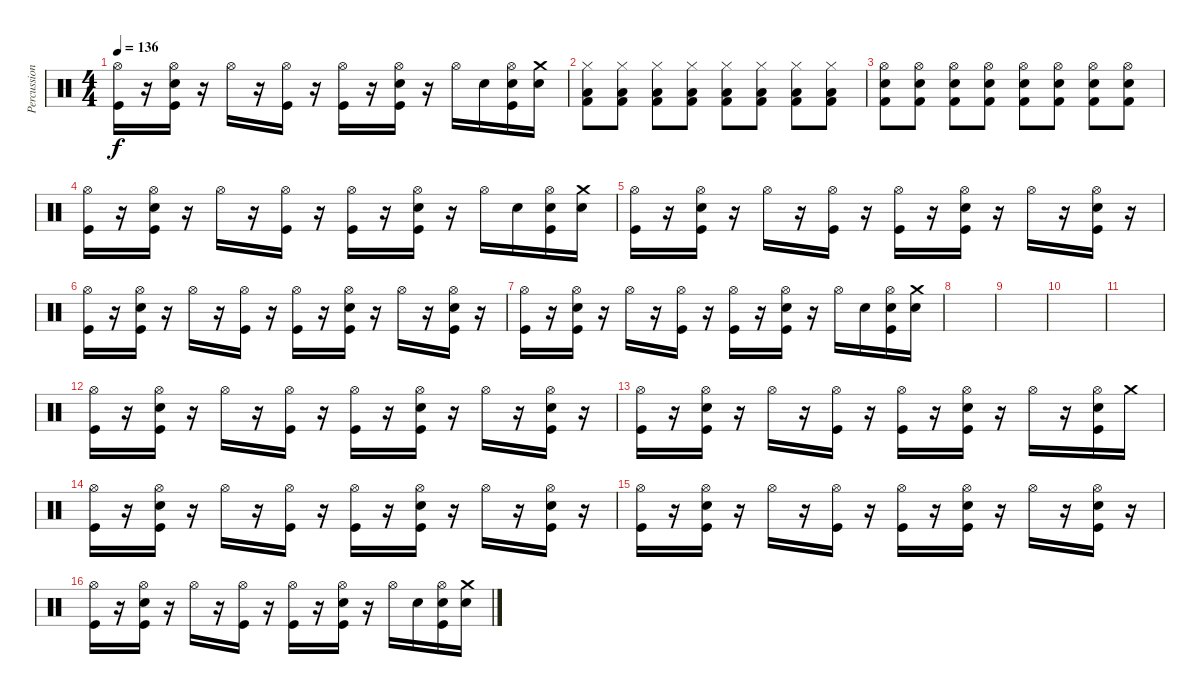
\track ("Percussion" "Percussion") {instrument percussion}
\staff {score}
\articulation defaults
\ts (4 4)
\tempo 136
\clef neutral
\ks c
("Kick (hit)" "Hi-Hat (open)").16{dy f} r.16 ("Kick (hit)" "Snare (hit) 2" "Hi-Hat (open)").16 r.16 "Hi-Hat (open)".16 r.16 ("Kick (hit)" "Hi-Hat (open)").16 r.16 ("Kick (hit)" "Hi-Hat (open)").16 r.16 ("Kick (hit)" "Snare (hit) 2" "Hi-Hat (open)").16 r.16 "Hi-Hat (open)".16 "Electric Snare (hit)".16 ("Kick (hit)" "Snare (hit) 2" "Hi-Hat (open)").16 ("Crash medium (hit)" "Electric Snare (hit)").16 |
("Hi-Hat (closed)" "Low Floor Tom (hit)" "Kick (hit) 2").8 ("Hi-Hat (closed)" "Low Floor Tom (hit)" "Kick (hit) 2").8 ("Hi-Hat (closed)" "Low Floor Tom (hit)" "Kick (hit) 2").8 ("Hi-Hat (closed)" "Low Floor Tom (hit)" "Kick (hit) 2").8 ("Hi-Hat (closed)" "Low Floor Tom (hit)" "Kick (hit) 2").8 ("Hi-Hat (closed)" "Low Floor Tom (hit)" "Kick (hit) 2").8 ("Hi-Hat (closed)" "Low Floor Tom (hit)" "Kick (hit) 2").8 ("Hi-Hat (closed)" "Low Floor Tom (hit)" "Kick (hit) 2").8 |
("Snare (hit) 2" "Hi-Hat (open)" "Kick (hit) 2").8 ("Snare (hit) 2" "Hi-Hat (open)" "Kick (hit) 2").8 ("Snare (hit) 2" "Hi-Hat (open)" "Kick (hit) 2").8 ("Snare (hit) 2" "Hi-Hat (open)" "Kick (hit) 2").8 ("Snare (hit) 2" "Hi-Hat (open)" "Kick (hit) 2").8 ("Snare (hit) 2" "Hi-Hat (open)" "Kick (hit) 2").8 ("Snare (hit) 2" "Hi-Hat (open)" "Kick (hit) 2").8 ("Snare (hit) 2" "Hi-Hat (open)" "Kick (hit) 2").8 |
("Kick (hit)" "Hi-Hat (open)").16 r.16 ("Kick (hit)" "Snare (hit) 2" "Hi-Hat (open)").16 r.16 "Hi-Hat (open)".16 r.16 ("Kick (hit)" "Hi-Hat (open)").16 r.16 ("Kick (hit)" "Hi-Hat (open)").16 r.16 ("Kick (hit)" "Snare (hit) 2" "Hi-Hat (open)").16 r.16 "Hi-Hat (open)".16 "Electric Snare (hit)".16 ("Kick (hit)" "Snare (hit) 2" "Hi-Hat (open)").16 ("Crash medium (hit)" "Electric Snare (hit)").16 |
("Kick (hit)" "Hi-Hat (open)").16 r.16 ("Kick (hit)" "Snare (hit) 2" "Hi-Hat (open)").16 r.16 "Hi-Hat (open)".16 r.16 ("Kick (hit)" "Hi-Hat (open)").16 r.16 ("Kick (hit)" "Hi-Hat (open)").16 r.16 ("Kick (hit)" "Snare (hit) 2" "Hi-Hat (open)").16 r.16 "Hi-Hat (open)".16 r.16 ("Kick (hit)" "Snare (hit) 2" "Hi-Hat (open)").16 r.16 |
("Kick (hit)" "Hi-Hat (open)").16 r.16 ("Kick (hit)" "Snare (hit) 2" "Hi-Hat (open)").16 r.16 "Hi-Hat (open)".16 r.16 ("Kick (hit)" "Hi-Hat (open)").16 r.16 ("Kick (hit)" "Hi-Hat (open)").16 r.16 ("Kick (hit)" "Snare (hit) 2" "Hi-Hat (open)").16 r.16 "Hi-Hat (open)".16 r.16 ("Kick (hit)" "Snare (hit) 2" "Hi-Hat (open)").16 r.16 |
("Kick (hit)" "Hi-Hat (open)").16 r.16 ("Kick (hit)" "Snare (hit) 2" "Hi-Hat (open)").16 r.16 "Hi-Hat (open)".16 r.16 ("Kick (hit)" "Hi-Hat (open)").16 r.16 ("Kick (hit)" "Hi-Hat (open)").16 r.16 ("Kick (hit)" "Snare (hit) 2" "Hi-Hat (open)").16 r.16 "Hi-Hat (open)".16 "Electric Snare (hit)".16 ("Kick (hit)" "Snare (hit) 2" "Hi-Hat (open)").16 ("Crash medium (hit)" "Electric Snare (hit)").16 |
|
|
|
|
("Kick (hit)" "Hi-Hat (open)").16 r.16 ("Kick (hit)" "Snare (hit) 2" "Hi-Hat (open)").16 r.16 "Hi-Hat (open)".16 r.16 ("Kick (hit)" "Hi-Hat (open)").16 r.16 ("Kick (hit)" "Hi-Hat (open)").16 r.16 ("Kick (hit)" "Snare (hit) 2" "Hi-Hat (open)").16 r.16 "Hi-Hat (open)".16 r.16 ("Kick (hit)" "Snare (hit) 2" "Hi-Hat (open)").16 r.16 |
("Kick (hit)" "Hi-Hat (open)").16 r.16 ("Kick (hit)" "Snare (hit) 2" "Hi-Hat (open)").16 r.16 "Hi-Hat (open)".16 r.16 ("Kick (hit)" "Hi-Hat (open)").16 r.16 ("Kick (hit)" "Hi-Hat (open)").16 r.16 ("Kick (hit)" "Snare (hit) 2" "Hi-Hat (open)").16 r.16 "Hi-Hat (open)".16 r.16 ("Kick (hit)" "Snare (hit) 2" "Hi-Hat (open)").16 "Crash medium (hit)".16 |
("Kick (hit)" "Hi-Hat (open)").16 r.16 ("Kick (hit)" "Snare (hit) 2" "Hi-Hat (open)").16 r.16 "Hi-Hat (open)".16 r.16 ("Kick (hit)" "Hi-Hat (open)").16 r.16 ("Kick (hit)" "Hi-Hat (open)").16 r.16 ("Kick (hit)" "Snare (hit) 2" "Hi-Hat (open)").16 r.16 "Hi-Hat (open)".16 r.16 ("Kick (hit)" "Snare (hit) 2" "Hi-Hat (open)").16 r.16 |
("Kick (hit)" "Hi-Hat (open)").16 r.16 ("Kick (hit)" "Snare (hit) 2" "Hi-Hat (open)").16 r.16 "Hi-Hat (open)".16 r.16 ("Kick (hit)" "Hi-Hat (open)").16 r.16 ("Kick (hit)" "Hi-Hat (open)").16 r.16 ("Kick (hit)" "Snare (hit) 2" "Hi-Hat (open)").16 r.16 "Hi-Hat (open)".16 r.16 ("Kick (hit)" "Snare (hit) 2" "Hi-Hat (open)").16 r.16 |
("Kick (hit)" "Hi-Hat (open)").16 r.16 ("Kick (hit)" "Snare (hit) 2" "Hi-Hat (open)").16 r.16 "Hi-Hat (open)".16 r.16 ("Kick (hit)" "Hi-Hat (open)").16 r.16 ("Kick (hit)" "Hi-Hat (open)").16 r.16 ("Kick (hit)" "Snare (hit) 2" "Hi-Hat (open)").16 r.16 "Hi-Hat (open)".16 "Electric Snare (hit)".16 ("Kick (hit)" "Snare (hit) 2" "Hi-Hat (open)").16 ("Crash medium (hit)" "Electric Snare (hit)").16
